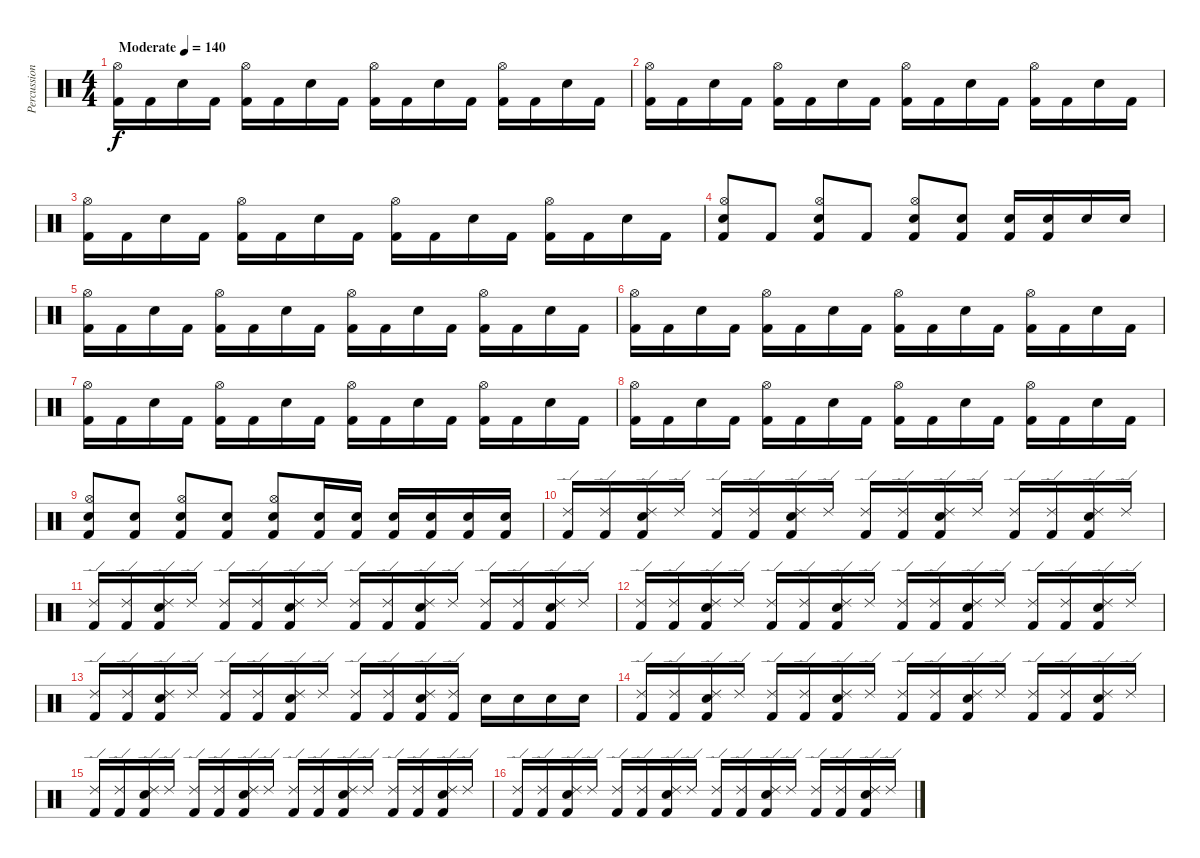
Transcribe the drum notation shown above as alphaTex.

\track ("Percussion" "Percussion") {instrument percussion}
\staff {score}
\articulation defaults
\ts (4 4)
\tempo (140 "Moderate")
\clef neutral
\ks c
("Kick (hit) 2" "Hi-Hat (open)").16{dy f} "Kick (hit) 2".16 "Electric Snare (hit)".16 "Kick (hit) 2".16 ("Kick (hit) 2" "Hi-Hat (open)").16 "Kick (hit) 2".16 "Electric Snare (hit)".16 "Kick (hit) 2".16 ("Kick (hit) 2" "Hi-Hat (open)").16 "Kick (hit) 2".16 "Electric Snare (hit)".16 "Kick (hit) 2".16 ("Kick (hit) 2" "Hi-Hat (open)").16 "Kick (hit) 2".16 "Electric Snare (hit)".16 "Kick (hit) 2".16 |
("Kick (hit) 2" "Hi-Hat (open)").16 "Kick (hit) 2".16 "Electric Snare (hit)".16 "Kick (hit) 2".16 ("Kick (hit) 2" "Hi-Hat (open)").16 "Kick (hit) 2".16 "Electric Snare (hit)".16 "Kick (hit) 2".16 ("Kick (hit) 2" "Hi-Hat (open)").16 "Kick (hit) 2".16 "Electric Snare (hit)".16 "Kick (hit) 2".16 ("Kick (hit) 2" "Hi-Hat (open)").16 "Kick (hit) 2".16 "Electric Snare (hit)".16 "Kick (hit) 2".16 |
("Kick (hit) 2" "Hi-Hat (open)").16 "Kick (hit) 2".16 "Electric Snare (hit)".16 "Kick (hit) 2".16 ("Kick (hit) 2" "Hi-Hat (open)").16 "Kick (hit) 2".16 "Electric Snare (hit)".16 "Kick (hit) 2".16 ("Kick (hit) 2" "Hi-Hat (open)").16 "Kick (hit) 2".16 "Electric Snare (hit)".16 "Kick (hit) 2".16 ("Kick (hit) 2" "Hi-Hat (open)").16 "Kick (hit) 2".16 "Electric Snare (hit)".16 "Kick (hit) 2".16 |
("Kick (hit) 2" "Electric Snare (hit)" "Hi-Hat (open)").8 "Kick (hit) 2".8 ("Kick (hit) 2" "Electric Snare (hit)" "Hi-Hat (open)").8 "Kick (hit) 2".8 ("Kick (hit) 2" "Electric Snare (hit)" "Hi-Hat (open)").8 ("Kick (hit) 2" "Electric Snare (hit)").8 ("Kick (hit) 2" "Electric Snare (hit)").16 ("Kick (hit) 2" "Electric Snare (hit)").16 "Electric Snare (hit)".16 "Electric Snare (hit)".16 |
("Kick (hit) 2" "Hi-Hat (open)").16 "Kick (hit) 2".16 "Electric Snare (hit)".16 "Kick (hit) 2".16 ("Kick (hit) 2" "Hi-Hat (open)").16 "Kick (hit) 2".16 "Electric Snare (hit)".16 "Kick (hit) 2".16 ("Kick (hit) 2" "Hi-Hat (open)").16 "Kick (hit) 2".16 "Electric Snare (hit)".16 "Kick (hit) 2".16 ("Kick (hit) 2" "Hi-Hat (open)").16 "Kick (hit) 2".16 "Electric Snare (hit)".16 "Kick (hit) 2".16 |
("Kick (hit) 2" "Hi-Hat (open)").16 "Kick (hit) 2".16 "Electric Snare (hit)".16 "Kick (hit) 2".16 ("Kick (hit) 2" "Hi-Hat (open)").16 "Kick (hit) 2".16 "Electric Snare (hit)".16 "Kick (hit) 2".16 ("Kick (hit) 2" "Hi-Hat (open)").16 "Kick (hit) 2".16 "Electric Snare (hit)".16 "Kick (hit) 2".16 ("Kick (hit) 2" "Hi-Hat (open)").16 "Kick (hit) 2".16 "Electric Snare (hit)".16 "Kick (hit) 2".16 |
("Kick (hit) 2" "Hi-Hat (open)").16 "Kick (hit) 2".16 "Electric Snare (hit)".16 "Kick (hit) 2".16 ("Kick (hit) 2" "Hi-Hat (open)").16 "Kick (hit) 2".16 "Electric Snare (hit)".16 "Kick (hit) 2".16 ("Kick (hit) 2" "Hi-Hat (open)").16 "Kick (hit) 2".16 "Electric Snare (hit)".16 "Kick (hit) 2".16 ("Kick (hit) 2" "Hi-Hat (open)").16 "Kick (hit) 2".16 "Electric Snare (hit)".16 "Kick (hit) 2".16 |
("Kick (hit) 2" "Hi-Hat (open)").16 "Kick (hit) 2".16 "Electric Snare (hit)".16 "Kick (hit) 2".16 ("Kick (hit) 2" "Hi-Hat (open)").16 "Kick (hit) 2".16 "Electric Snare (hit)".16 "Kick (hit) 2".16 ("Kick (hit) 2" "Hi-Hat (open)").16 "Kick (hit) 2".16 "Electric Snare (hit)".16 "Kick (hit) 2".16 ("Kick (hit) 2" "Hi-Hat (open)").16 "Kick (hit) 2".16 "Electric Snare (hit)".16 "Kick (hit) 2".16 |
("Kick (hit) 2" "Electric Snare (hit)" "Hi-Hat (open)").8 ("Kick (hit) 2" "Electric Snare (hit)").8 ("Kick (hit) 2" "Electric Snare (hit)" "Hi-Hat (open)").8 ("Kick (hit) 2" "Electric Snare (hit)").8 ("Kick (hit) 2" "Electric Snare (hit)" "Hi-Hat (open)").8 ("Kick (hit) 2" "Electric Snare (hit)").16 ("Kick (hit) 2" "Electric Snare (hit)").16 ("Kick (hit) 2" "Electric Snare (hit)").16 ("Kick (hit) 2" "Electric Snare (hit)").16 ("Kick (hit) 2" "Electric Snare (hit)").16 ("Kick (hit) 2" "Electric Snare (hit)").16 |
("Kick (hit) 2" "Ride (edge) 2").16 ("Kick (hit) 2" "Ride (edge) 2").16 ("Kick (hit) 2" "Electric Snare (hit)" "Ride (edge) 2").16 "Ride (edge) 2".16 ("Kick (hit) 2" "Ride (edge) 2").16 ("Kick (hit) 2" "Ride (edge) 2").16 ("Kick (hit) 2" "Electric Snare (hit)" "Ride (edge) 2").16 "Ride (edge) 2".16 ("Kick (hit) 2" "Ride (edge) 2").16 ("Kick (hit) 2" "Ride (edge) 2").16 ("Kick (hit) 2" "Electric Snare (hit)" "Ride (edge) 2").16 "Ride (edge) 2".16 ("Kick (hit) 2" "Ride (edge) 2").16 ("Kick (hit) 2" "Ride (edge) 2").16 ("Kick (hit) 2" "Electric Snare (hit)" "Ride (edge) 2").16 "Ride (edge) 2".16 |
("Kick (hit) 2" "Ride (edge) 2").16 ("Kick (hit) 2" "Ride (edge) 2").16 ("Kick (hit) 2" "Electric Snare (hit)" "Ride (edge) 2").16 "Ride (edge) 2".16 ("Kick (hit) 2" "Ride (edge) 2").16 ("Kick (hit) 2" "Ride (edge) 2").16 ("Kick (hit) 2" "Electric Snare (hit)" "Ride (edge) 2").16 "Ride (edge) 2".16 ("Kick (hit) 2" "Ride (edge) 2").16 ("Kick (hit) 2" "Ride (edge) 2").16 ("Kick (hit) 2" "Electric Snare (hit)" "Ride (edge) 2").16 "Ride (edge) 2".16 ("Kick (hit) 2" "Ride (edge) 2").16 ("Kick (hit) 2" "Ride (edge) 2").16 ("Kick (hit) 2" "Electric Snare (hit)" "Ride (edge) 2").16 "Ride (edge) 2".16 |
("Kick (hit) 2" "Ride (edge) 2").16 ("Kick (hit) 2" "Ride (edge) 2").16 ("Kick (hit) 2" "Electric Snare (hit)" "Ride (edge) 2").16 "Ride (edge) 2".16 ("Kick (hit) 2" "Ride (edge) 2").16 ("Kick (hit) 2" "Ride (edge) 2").16 ("Kick (hit) 2" "Electric Snare (hit)" "Ride (edge) 2").16 "Ride (edge) 2".16 ("Kick (hit) 2" "Ride (edge) 2").16 ("Kick (hit) 2" "Ride (edge) 2").16 ("Kick (hit) 2" "Electric Snare (hit)" "Ride (edge) 2").16 "Ride (edge) 2".16 ("Kick (hit) 2" "Ride (edge) 2").16 ("Kick (hit) 2" "Ride (edge) 2").16 ("Kick (hit) 2" "Electric Snare (hit)" "Ride (edge) 2").16 "Ride (edge) 2".16 |
("Kick (hit) 2" "Ride (edge) 2").16 ("Kick (hit) 2" "Ride (edge) 2").16 ("Kick (hit) 2" "Electric Snare (hit)" "Ride (edge) 2").16 "Ride (edge) 2".16 ("Kick (hit) 2" "Ride (edge) 2").16 ("Kick (hit) 2" "Ride (edge) 2").16 ("Kick (hit) 2" "Electric Snare (hit)" "Ride (edge) 2").16 "Ride (edge) 2".16 ("Kick (hit) 2" "Ride (edge) 2").16 ("Kick (hit) 2" "Ride (edge) 2").16 ("Kick (hit) 2" "Electric Snare (hit)" "Ride (edge) 2").16 ("Kick (hit) 2" "Ride (edge) 2").16 "Electric Snare (hit)".16 "Electric Snare (hit)".16 "Electric Snare (hit)".16 "Electric Snare (hit)".16 |
("Kick (hit) 2" "Ride (edge) 2").16 ("Kick (hit) 2" "Ride (edge) 2").16 ("Kick (hit) 2" "Electric Snare (hit)" "Ride (edge) 2").16 "Ride (edge) 2".16 ("Kick (hit) 2" "Ride (edge) 2").16 ("Kick (hit) 2" "Ride (edge) 2").16 ("Kick (hit) 2" "Electric Snare (hit)" "Ride (edge) 2").16 "Ride (edge) 2".16 ("Kick (hit) 2" "Ride (edge) 2").16 ("Kick (hit) 2" "Ride (edge) 2").16 ("Kick (hit) 2" "Electric Snare (hit)" "Ride (edge) 2").16 "Ride (edge) 2".16 ("Kick (hit) 2" "Ride (edge) 2").16 ("Kick (hit) 2" "Ride (edge) 2").16 ("Kick (hit) 2" "Electric Snare (hit)" "Ride (edge) 2").16 "Ride (edge) 2".16 |
("Kick (hit) 2" "Ride (edge) 2").16 ("Kick (hit) 2" "Ride (edge) 2").16 ("Kick (hit) 2" "Electric Snare (hit)" "Ride (edge) 2").16 "Ride (edge) 2".16 ("Kick (hit) 2" "Ride (edge) 2").16 ("Kick (hit) 2" "Ride (edge) 2").16 ("Kick (hit) 2" "Electric Snare (hit)" "Ride (edge) 2").16 "Ride (edge) 2".16 ("Kick (hit) 2" "Ride (edge) 2").16 ("Kick (hit) 2" "Ride (edge) 2").16 ("Kick (hit) 2" "Electric Snare (hit)" "Ride (edge) 2").16 "Ride (edge) 2".16 ("Kick (hit) 2" "Ride (edge) 2").16 ("Kick (hit) 2" "Ride (edge) 2").16 ("Kick (hit) 2" "Electric Snare (hit)" "Ride (edge) 2").16 "Ride (edge) 2".16 |
("Kick (hit) 2" "Ride (edge) 2").16 ("Kick (hit) 2" "Ride (edge) 2").16 ("Kick (hit) 2" "Electric Snare (hit)" "Ride (edge) 2").16 "Ride (edge) 2".16 ("Kick (hit) 2" "Ride (edge) 2").16 ("Kick (hit) 2" "Ride (edge) 2").16 ("Kick (hit) 2" "Electric Snare (hit)" "Ride (edge) 2").16 "Ride (edge) 2".16 ("Kick (hit) 2" "Ride (edge) 2").16 ("Kick (hit) 2" "Ride (edge) 2").16 ("Kick (hit) 2" "Electric Snare (hit)" "Ride (edge) 2").16 "Ride (edge) 2".16 ("Kick (hit) 2" "Ride (edge) 2").16 ("Kick (hit) 2" "Ride (edge) 2").16 ("Kick (hit) 2" "Electric Snare (hit)" "Ride (edge) 2").16 "Ride (edge) 2".16
